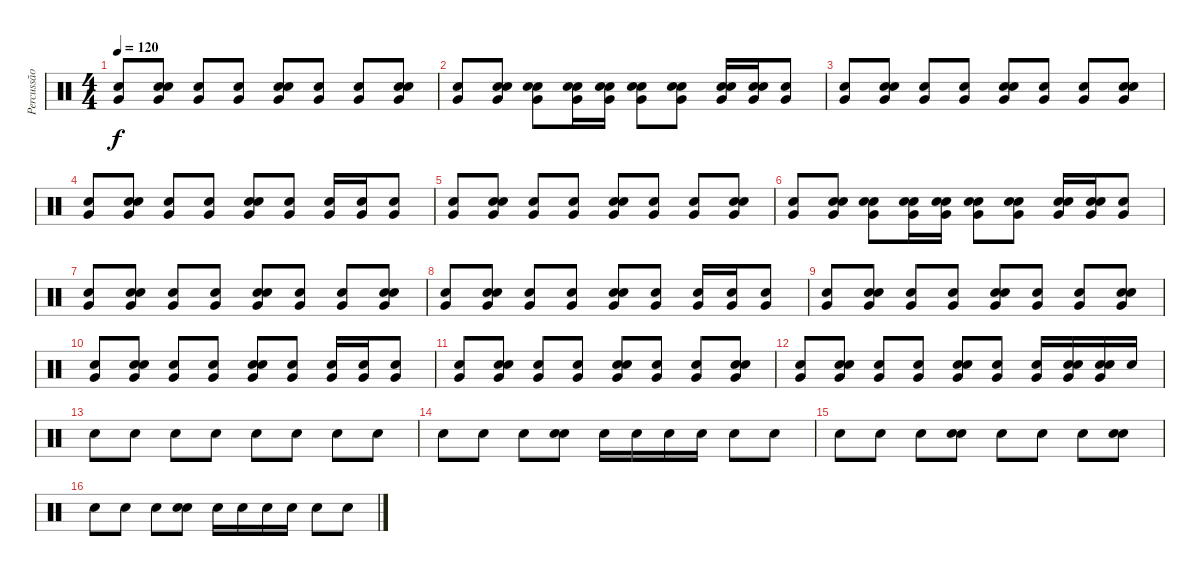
\track ("Percussão" "Percussão") {instrument percussion}
\staff {score}
\articulation defaults
\ts (4 4)
\tempo 120
\clef neutral
\ks c
("Snare (hit) 2" "Very Low Tom (hit)").8{dy f} ("Snare (hit) 2" "Electric Snare (hit)" "Very Low Tom (hit)").8 ("Snare (hit) 2" "Very Low Tom (hit)").8 ("Snare (hit) 2" "Very Low Tom (hit)").8 ("Snare (hit) 2" "Electric Snare (hit)" "Very Low Tom (hit)").8 ("Snare (hit) 2" "Very Low Tom (hit)").8 ("Snare (hit) 2" "Very Low Tom (hit)").8 ("Snare (hit) 2" "Electric Snare (hit)" "Very Low Tom (hit)").8 |
("Very Low Tom (hit)" "Snare (hit) 2").8 ("Very Low Tom (hit)" "Snare (hit) 2" "Electric Snare (hit)").8 ("Very Low Tom (hit)" "Snare (hit) 2" "Electric Snare (hit)").8 ("Very Low Tom (hit)" "Snare (hit) 2" "Electric Snare (hit)").16 ("Very Low Tom (hit)" "Snare (hit) 2" "Electric Snare (hit)").16 ("Very Low Tom (hit)" "Snare (hit) 2" "Electric Snare (hit)").8 ("Very Low Tom (hit)" "Snare (hit) 2" "Electric Snare (hit)").8 ("Very Low Tom (hit)" "Snare (hit) 2" "Electric Snare (hit)").16 ("Very Low Tom (hit)" "Snare (hit) 2" "Electric Snare (hit)").16 ("Very Low Tom (hit)" "Electric Snare (hit)").8 |
("Snare (hit) 2" "Very Low Tom (hit)").8 ("Snare (hit) 2" "Electric Snare (hit)" "Very Low Tom (hit)").8 ("Snare (hit) 2" "Very Low Tom (hit)").8 ("Snare (hit) 2" "Very Low Tom (hit)").8 ("Snare (hit) 2" "Electric Snare (hit)" "Very Low Tom (hit)").8 ("Snare (hit) 2" "Very Low Tom (hit)").8 ("Snare (hit) 2" "Very Low Tom (hit)").8 ("Snare (hit) 2" "Electric Snare (hit)" "Very Low Tom (hit)").8 |
("Very Low Tom (hit)" "Snare (hit) 2").8 ("Very Low Tom (hit)" "Snare (hit) 2" "Electric Snare (hit)").8 ("Very Low Tom (hit)" "Snare (hit) 2").8 ("Very Low Tom (hit)" "Snare (hit) 2").8 ("Very Low Tom (hit)" "Snare (hit) 2" "Electric Snare (hit)").8 ("Very Low Tom (hit)" "Snare (hit) 2").8 ("Very Low Tom (hit)" "Snare (hit) 2").16 ("Very Low Tom (hit)" "Snare (hit) 2").16 ("Very Low Tom (hit)" "Electric Snare (hit)").8 |
("Snare (hit) 2" "Very Low Tom (hit)").8 ("Snare (hit) 2" "Electric Snare (hit)" "Very Low Tom (hit)").8 ("Snare (hit) 2" "Very Low Tom (hit)").8 ("Snare (hit) 2" "Very Low Tom (hit)").8 ("Snare (hit) 2" "Electric Snare (hit)" "Very Low Tom (hit)").8 ("Snare (hit) 2" "Very Low Tom (hit)").8 ("Snare (hit) 2" "Very Low Tom (hit)").8 ("Snare (hit) 2" "Electric Snare (hit)" "Very Low Tom (hit)").8 |
("Very Low Tom (hit)" "Snare (hit) 2").8 ("Very Low Tom (hit)" "Snare (hit) 2" "Electric Snare (hit)").8 ("Very Low Tom (hit)" "Snare (hit) 2" "Electric Snare (hit)").8 ("Very Low Tom (hit)" "Snare (hit) 2" "Electric Snare (hit)").16 ("Very Low Tom (hit)" "Snare (hit) 2" "Electric Snare (hit)").16 ("Very Low Tom (hit)" "Snare (hit) 2" "Electric Snare (hit)").8 ("Very Low Tom (hit)" "Snare (hit) 2" "Electric Snare (hit)").8 ("Very Low Tom (hit)" "Snare (hit) 2" "Electric Snare (hit)").16 ("Very Low Tom (hit)" "Snare (hit) 2" "Electric Snare (hit)").16 ("Very Low Tom (hit)" "Electric Snare (hit)").8 |
("Snare (hit) 2" "Very Low Tom (hit)").8 ("Snare (hit) 2" "Electric Snare (hit)" "Very Low Tom (hit)").8 ("Snare (hit) 2" "Very Low Tom (hit)").8 ("Snare (hit) 2" "Very Low Tom (hit)").8 ("Snare (hit) 2" "Electric Snare (hit)" "Very Low Tom (hit)").8 ("Snare (hit) 2" "Very Low Tom (hit)").8 ("Snare (hit) 2" "Very Low Tom (hit)").8 ("Snare (hit) 2" "Electric Snare (hit)" "Very Low Tom (hit)").8 |
("Very Low Tom (hit)" "Snare (hit) 2").8 ("Very Low Tom (hit)" "Snare (hit) 2" "Electric Snare (hit)").8 ("Very Low Tom (hit)" "Snare (hit) 2").8 ("Very Low Tom (hit)" "Snare (hit) 2").8 ("Very Low Tom (hit)" "Snare (hit) 2" "Electric Snare (hit)").8 ("Very Low Tom (hit)" "Snare (hit) 2").8 ("Very Low Tom (hit)" "Snare (hit) 2").16 ("Very Low Tom (hit)" "Snare (hit) 2").16 ("Very Low Tom (hit)" "Electric Snare (hit)").8 |
("Snare (hit) 2" "Very Low Tom (hit)").8 ("Snare (hit) 2" "Electric Snare (hit)" "Very Low Tom (hit)").8 ("Snare (hit) 2" "Very Low Tom (hit)").8 ("Snare (hit) 2" "Very Low Tom (hit)").8 ("Snare (hit) 2" "Electric Snare (hit)" "Very Low Tom (hit)").8 ("Snare (hit) 2" "Very Low Tom (hit)").8 ("Snare (hit) 2" "Very Low Tom (hit)").8 ("Snare (hit) 2" "Electric Snare (hit)" "Very Low Tom (hit)").8 |
("Very Low Tom (hit)" "Snare (hit) 2").8 ("Very Low Tom (hit)" "Snare (hit) 2" "Electric Snare (hit)").8 ("Very Low Tom (hit)" "Snare (hit) 2").8 ("Very Low Tom (hit)" "Snare (hit) 2").8 ("Very Low Tom (hit)" "Snare (hit) 2" "Electric Snare (hit)").8 ("Very Low Tom (hit)" "Snare (hit) 2").8 ("Very Low Tom (hit)" "Snare (hit) 2").16 ("Very Low Tom (hit)" "Snare (hit) 2").16 ("Very Low Tom (hit)" "Electric Snare (hit)").8 |
("Very Low Tom (hit)" "Snare (hit) 2").8 ("Very Low Tom (hit)" "Snare (hit) 2" "Electric Snare (hit)").8 ("Very Low Tom (hit)" "Snare (hit) 2").8 ("Very Low Tom (hit)" "Snare (hit) 2").8 ("Very Low Tom (hit)" "Snare (hit) 2" "Electric Snare (hit)").8 ("Very Low Tom (hit)" "Snare (hit) 2").8 ("Very Low Tom (hit)" "Snare (hit) 2").8 ("Very Low Tom (hit)" "Snare (hit) 2" "Electric Snare (hit)").8 |
("Very Low Tom (hit)" "Snare (hit) 2").8 ("Very Low Tom (hit)" "Snare (hit) 2" "Electric Snare (hit)").8 ("Very Low Tom (hit)" "Snare (hit) 2").8 ("Very Low Tom (hit)" "Snare (hit) 2").8 ("Very Low Tom (hit)" "Snare (hit) 2" "Electric Snare (hit)").8 ("Very Low Tom (hit)" "Snare (hit) 2").8 ("Very Low Tom (hit)" "Snare (hit) 2").16 ("Very Low Tom (hit)" "Snare (hit) 2" "Electric Snare (hit)").16 ("Very Low Tom (hit)" "Snare (hit) 2" "Electric Snare (hit)").16 "Electric Snare (hit)".16 |
"Snare (hit) 2".8 "Snare (hit) 2".8 "Electric Snare (hit)".8 "Electric Snare (hit)".8 "Snare (hit) 2".8 "Snare (hit) 2".8 "Electric Snare (hit)".8 "Electric Snare (hit)".8 |
"Snare (hit) 2".8 "Snare (hit) 2".8 "Electric Snare (hit)".8 ("Snare (hit) 2" "Electric Snare (hit)").8 "Snare (hit) 2".16 "Snare (hit) 2".16 "Snare (hit) 2".16 "Snare (hit) 2".16 "Electric Snare (hit)".8 "Electric Snare (hit)".8 |
"Snare (hit) 2".8 "Snare (hit) 2".8 "Electric Snare (hit)".8 ("Snare (hit) 2" "Electric Snare (hit)").8 "Snare (hit) 2".8 "Snare (hit) 2".8 "Electric Snare (hit)".8 ("Snare (hit) 2" "Electric Snare (hit)").8 |
"Snare (hit) 2".8 "Snare (hit) 2".8 "Electric Snare (hit)".8 ("Snare (hit) 2" "Electric Snare (hit)").8 "Snare (hit) 2".16 "Snare (hit) 2".16 "Snare (hit) 2".16 "Snare (hit) 2".16 "Electric Snare (hit)".8 "Electric Snare (hit)".8
